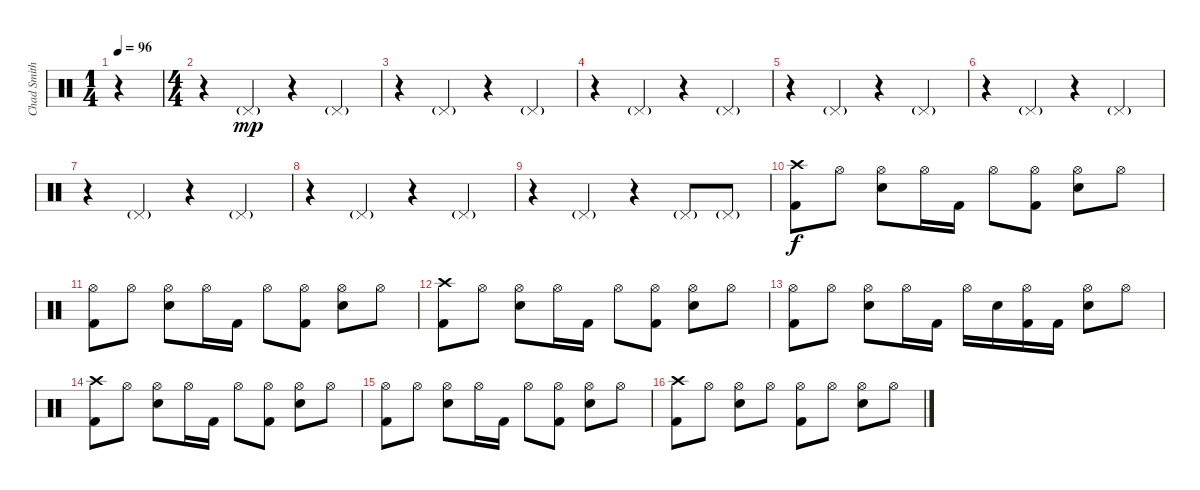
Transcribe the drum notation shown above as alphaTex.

\track ("Chad Smith" "Chad Smith") {instrument percussion}
\staff {score}
\articulation defaults
\ts (1 4)
\tempo 96
\clef neutral
\ks c
r.4{dy mp} |
\ts (4 4)
r.4 "Pedal Hi-Hat (hit)"{g}.4 r.4 "Pedal Hi-Hat (hit)"{g}.4 |
r.4 "Pedal Hi-Hat (hit)"{g}.4 r.4 "Pedal Hi-Hat (hit)"{g}.4 |
r.4 "Pedal Hi-Hat (hit)"{g}.4 r.4 "Pedal Hi-Hat (hit)"{g}.4 |
r.4 "Pedal Hi-Hat (hit)"{g}.4 r.4 "Pedal Hi-Hat (hit)"{g}.4 |
r.4 "Pedal Hi-Hat (hit)"{g}.4 r.4 "Pedal Hi-Hat (hit)"{g}.4 |
r.4 "Pedal Hi-Hat (hit)"{g}.4 r.4 "Pedal Hi-Hat (hit)"{g}.4 |
r.4 "Pedal Hi-Hat (hit)"{g}.4 r.4 "Pedal Hi-Hat (hit)"{g}.4 |
r.4 "Pedal Hi-Hat (hit)"{g}.4 r.4 "Pedal Hi-Hat (hit)"{g}.8 "Pedal Hi-Hat (hit)"{g}.8 |
("Crash high (hit)" "Kick (hit) 2").8{dy f} "Hi-Hat (open)".8 ("Hi-Hat (open)" "Electric Snare (hit)").8 "Hi-Hat (open)".16 "Kick (hit) 2".16 "Hi-Hat (open)".8 ("Hi-Hat (open)" "Kick (hit) 2").8 ("Hi-Hat (open)" "Electric Snare (hit)").8 "Hi-Hat (open)".8 |
("Hi-Hat (open)" "Kick (hit) 2").8 "Hi-Hat (open)".8 ("Hi-Hat (open)" "Electric Snare (hit)").8 "Hi-Hat (open)".16 "Kick (hit) 2".16 "Hi-Hat (open)".8 ("Hi-Hat (open)" "Kick (hit) 2").8 ("Hi-Hat (open)" "Electric Snare (hit)").8 "Hi-Hat (open)".8 |
("Crash high (hit)" "Kick (hit) 2").8 "Hi-Hat (open)".8 ("Hi-Hat (open)" "Electric Snare (hit)").8 "Hi-Hat (open)".16 "Kick (hit) 2".16 "Hi-Hat (open)".8 ("Hi-Hat (open)" "Kick (hit) 2").8 ("Hi-Hat (open)" "Electric Snare (hit)").8 "Hi-Hat (open)".8 |
("Hi-Hat (open)" "Kick (hit) 2").8 "Hi-Hat (open)".8 ("Hi-Hat (open)" "Electric Snare (hit)").8 "Hi-Hat (open)".16 "Kick (hit) 2".16 "Hi-Hat (open)".16 "Electric Snare (hit)".16 ("Hi-Hat (open)" "Kick (hit) 2").16 "Kick (hit) 2".16 ("Hi-Hat (open)" "Electric Snare (hit)").8 "Hi-Hat (open)".8 |
("Crash high (hit)" "Kick (hit) 2").8 "Hi-Hat (open)".8 ("Hi-Hat (open)" "Electric Snare (hit)").8 "Hi-Hat (open)".16 "Kick (hit) 2".16 "Hi-Hat (open)".8 ("Hi-Hat (open)" "Kick (hit) 2").8 ("Hi-Hat (open)" "Electric Snare (hit)").8 "Hi-Hat (open)".8 |
("Hi-Hat (open)" "Kick (hit) 2").8 "Hi-Hat (open)".8 ("Hi-Hat (open)" "Electric Snare (hit)").8 "Hi-Hat (open)".16 "Kick (hit) 2".16 "Hi-Hat (open)".8 ("Hi-Hat (open)" "Kick (hit) 2").8 ("Hi-Hat (open)" "Electric Snare (hit)").8 "Hi-Hat (open)".8 |
("Crash high (hit)" "Kick (hit) 2").8 "Hi-Hat (open)".8 ("Hi-Hat (open)" "Electric Snare (hit)").8 "Hi-Hat (open)".8 ("Hi-Hat (open)" "Kick (hit) 2").8 "Hi-Hat (open)".8 ("Hi-Hat (open)" "Electric Snare (hit)").8 "Hi-Hat (open)".8
